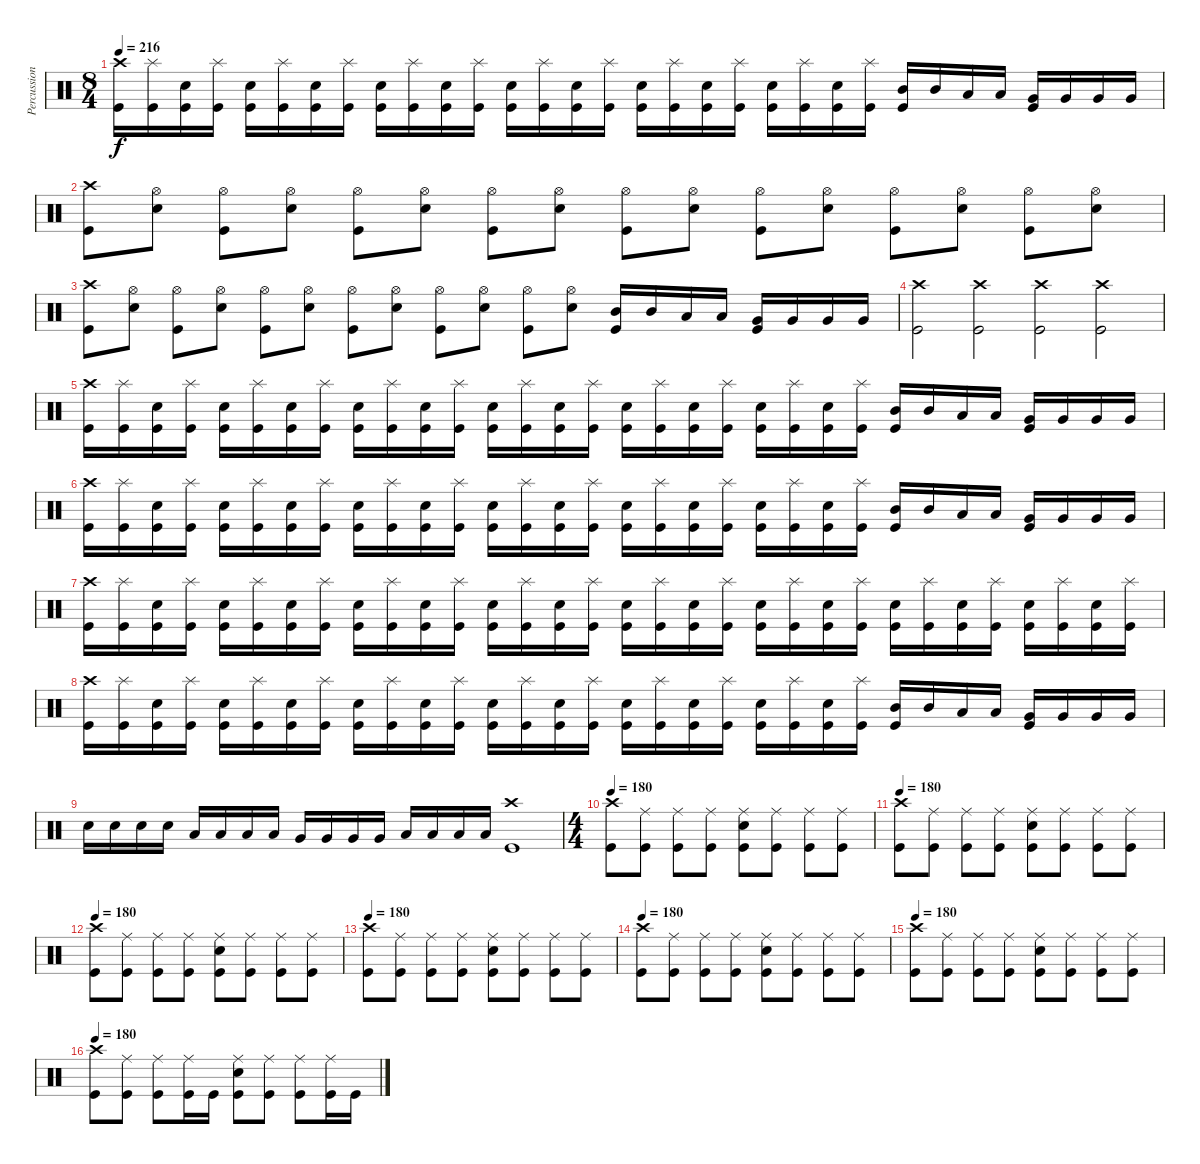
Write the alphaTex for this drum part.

\track ("Percussion" "Percussion") {instrument percussion}
\staff {score}
\articulation defaults
\ts (8 4)
\tempo 216
\clef neutral
\ks c
("Crash high (hit)" "Kick (hit)").16{dy f} ("Splash (hit)" "Kick (hit)").16 ("Electric Snare (hit)" "Kick (hit)").16 ("Splash (hit)" "Kick (hit)").16 ("Electric Snare (hit)" "Kick (hit)").16 ("Splash (hit)" "Kick (hit)").16 ("Electric Snare (hit)" "Kick (hit)").16 ("Splash (hit)" "Kick (hit)").16 ("Electric Snare (hit)" "Kick (hit)").16 ("Splash (hit)" "Kick (hit)").16 ("Electric Snare (hit)" "Kick (hit)").16 ("Splash (hit)" "Kick (hit)").16 ("Electric Snare (hit)" "Kick (hit)").16 ("Splash (hit)" "Kick (hit)").16 ("Electric Snare (hit)" "Kick (hit)").16 ("Splash (hit)" "Kick (hit)").16 ("Electric Snare (hit)" "Kick (hit)").16 ("Splash (hit)" "Kick (hit)").16 ("Electric Snare (hit)" "Kick (hit)").16 ("Splash (hit)" "Kick (hit)").16 ("Electric Snare (hit)" "Kick (hit)").16 ("Splash (hit)" "Kick (hit)").16 ("Electric Snare (hit)" "Kick (hit)").16 ("Splash (hit)" "Kick (hit)").16 ("Mid Tom (hit)" "Kick (hit)").16 "Mid Tom (hit)".16 "Low Tom (hit)".16 "Low Tom (hit)".16 ("Very Low Tom (hit)" "Kick (hit)").16 "Very Low Tom (hit)".16 "Very Low Tom (hit)".16 "Very Low Tom (hit)".16 |
("Crash high (hit)" "Kick (hit)").8 ("Hi-Hat (open)" "Electric Snare (hit)").8 ("Hi-Hat (open)" "Kick (hit)").8 ("Hi-Hat (open)" "Electric Snare (hit)").8 ("Hi-Hat (open)" "Kick (hit)").8 ("Hi-Hat (open)" "Electric Snare (hit)").8 ("Hi-Hat (open)" "Kick (hit)").8 ("Hi-Hat (open)" "Electric Snare (hit)").8 ("Hi-Hat (open)" "Kick (hit)").8 ("Hi-Hat (open)" "Electric Snare (hit)").8 ("Hi-Hat (open)" "Kick (hit)").8 ("Hi-Hat (open)" "Electric Snare (hit)").8 ("Hi-Hat (open)" "Kick (hit)").8 ("Hi-Hat (open)" "Electric Snare (hit)").8 ("Hi-Hat (open)" "Kick (hit)").8 ("Hi-Hat (open)" "Electric Snare (hit)").8 |
("Crash high (hit)" "Kick (hit)").8 ("Hi-Hat (open)" "Electric Snare (hit)").8 ("Hi-Hat (open)" "Kick (hit)").8 ("Hi-Hat (open)" "Electric Snare (hit)").8 ("Hi-Hat (open)" "Kick (hit)").8 ("Hi-Hat (open)" "Electric Snare (hit)").8 ("Hi-Hat (open)" "Kick (hit)").8 ("Hi-Hat (open)" "Electric Snare (hit)").8 ("Hi-Hat (open)" "Kick (hit)").8 ("Hi-Hat (open)" "Electric Snare (hit)").8 ("Hi-Hat (open)" "Kick (hit)").8 ("Hi-Hat (open)" "Electric Snare (hit)").8 ("Mid Tom (hit)" "Kick (hit)").16 "Mid Tom (hit)".16 "Low Tom (hit)".16 "Low Tom (hit)".16 ("Very Low Tom (hit)" "Kick (hit)").16 "Very Low Tom (hit)".16 "Very Low Tom (hit)".16 "Very Low Tom (hit)".16 |
("Crash high (hit)" "Kick (hit)").2 ("Crash high (hit)" "Kick (hit)").2 ("Crash high (hit)" "Kick (hit)").2 ("Crash high (hit)" "Kick (hit)").2 |
("Crash high (hit)" "Kick (hit)").16 ("Splash (hit)" "Kick (hit)").16 ("Electric Snare (hit)" "Kick (hit)").16 ("Splash (hit)" "Kick (hit)").16 ("Electric Snare (hit)" "Kick (hit)").16 ("Splash (hit)" "Kick (hit)").16 ("Electric Snare (hit)" "Kick (hit)").16 ("Splash (hit)" "Kick (hit)").16 ("Electric Snare (hit)" "Kick (hit)").16 ("Splash (hit)" "Kick (hit)").16 ("Electric Snare (hit)" "Kick (hit)").16 ("Splash (hit)" "Kick (hit)").16 ("Electric Snare (hit)" "Kick (hit)").16 ("Splash (hit)" "Kick (hit)").16 ("Electric Snare (hit)" "Kick (hit)").16 ("Splash (hit)" "Kick (hit)").16 ("Electric Snare (hit)" "Kick (hit)").16 ("Splash (hit)" "Kick (hit)").16 ("Electric Snare (hit)" "Kick (hit)").16 ("Splash (hit)" "Kick (hit)").16 ("Electric Snare (hit)" "Kick (hit)").16 ("Splash (hit)" "Kick (hit)").16 ("Electric Snare (hit)" "Kick (hit)").16 ("Splash (hit)" "Kick (hit)").16 ("Mid Tom (hit)" "Kick (hit)").16 "Mid Tom (hit)".16 "Low Tom (hit)".16 "Low Tom (hit)".16 ("Very Low Tom (hit)" "Kick (hit)").16 "Very Low Tom (hit)".16 "Very Low Tom (hit)".16 "Very Low Tom (hit)".16 |
("Crash high (hit)" "Kick (hit)").16 ("Splash (hit)" "Kick (hit)").16 ("Electric Snare (hit)" "Kick (hit)").16 ("Splash (hit)" "Kick (hit)").16 ("Electric Snare (hit)" "Kick (hit)").16 ("Splash (hit)" "Kick (hit)").16 ("Electric Snare (hit)" "Kick (hit)").16 ("Splash (hit)" "Kick (hit)").16 ("Electric Snare (hit)" "Kick (hit)").16 ("Splash (hit)" "Kick (hit)").16 ("Electric Snare (hit)" "Kick (hit)").16 ("Splash (hit)" "Kick (hit)").16 ("Electric Snare (hit)" "Kick (hit)").16 ("Splash (hit)" "Kick (hit)").16 ("Electric Snare (hit)" "Kick (hit)").16 ("Splash (hit)" "Kick (hit)").16 ("Electric Snare (hit)" "Kick (hit)").16 ("Splash (hit)" "Kick (hit)").16 ("Electric Snare (hit)" "Kick (hit)").16 ("Splash (hit)" "Kick (hit)").16 ("Electric Snare (hit)" "Kick (hit)").16 ("Splash (hit)" "Kick (hit)").16 ("Electric Snare (hit)" "Kick (hit)").16 ("Splash (hit)" "Kick (hit)").16 ("Mid Tom (hit)" "Kick (hit)").16 "Mid Tom (hit)".16 "Low Tom (hit)".16 "Low Tom (hit)".16 ("Very Low Tom (hit)" "Kick (hit)").16 "Very Low Tom (hit)".16 "Very Low Tom (hit)".16 "Very Low Tom (hit)".16 |
("Crash high (hit)" "Kick (hit)").16 ("Splash (hit)" "Kick (hit)").16 ("Electric Snare (hit)" "Kick (hit)").16 ("Splash (hit)" "Kick (hit)").16 ("Electric Snare (hit)" "Kick (hit)").16 ("Splash (hit)" "Kick (hit)").16 ("Electric Snare (hit)" "Kick (hit)").16 ("Splash (hit)" "Kick (hit)").16 ("Electric Snare (hit)" "Kick (hit)").16 ("Splash (hit)" "Kick (hit)").16 ("Electric Snare (hit)" "Kick (hit)").16 ("Splash (hit)" "Kick (hit)").16 ("Electric Snare (hit)" "Kick (hit)").16 ("Splash (hit)" "Kick (hit)").16 ("Electric Snare (hit)" "Kick (hit)").16 ("Splash (hit)" "Kick (hit)").16 ("Electric Snare (hit)" "Kick (hit)").16 ("Splash (hit)" "Kick (hit)").16 ("Electric Snare (hit)" "Kick (hit)").16 ("Splash (hit)" "Kick (hit)").16 ("Electric Snare (hit)" "Kick (hit)").16 ("Splash (hit)" "Kick (hit)").16 ("Electric Snare (hit)" "Kick (hit)").16 ("Splash (hit)" "Kick (hit)").16 ("Electric Snare (hit)" "Kick (hit)").16 ("Splash (hit)" "Kick (hit)").16 ("Electric Snare (hit)" "Kick (hit)").16 ("Splash (hit)" "Kick (hit)").16 ("Electric Snare (hit)" "Kick (hit)").16 ("Splash (hit)" "Kick (hit)").16 ("Electric Snare (hit)" "Kick (hit)").16 ("Splash (hit)" "Kick (hit)").16 |
("Crash high (hit)" "Kick (hit)").16 ("Splash (hit)" "Kick (hit)").16 ("Electric Snare (hit)" "Kick (hit)").16 ("Splash (hit)" "Kick (hit)").16 ("Electric Snare (hit)" "Kick (hit)").16 ("Splash (hit)" "Kick (hit)").16 ("Electric Snare (hit)" "Kick (hit)").16 ("Splash (hit)" "Kick (hit)").16 ("Electric Snare (hit)" "Kick (hit)").16 ("Splash (hit)" "Kick (hit)").16 ("Electric Snare (hit)" "Kick (hit)").16 ("Splash (hit)" "Kick (hit)").16 ("Electric Snare (hit)" "Kick (hit)").16 ("Splash (hit)" "Kick (hit)").16 ("Electric Snare (hit)" "Kick (hit)").16 ("Splash (hit)" "Kick (hit)").16 ("Electric Snare (hit)" "Kick (hit)").16 ("Splash (hit)" "Kick (hit)").16 ("Electric Snare (hit)" "Kick (hit)").16 ("Splash (hit)" "Kick (hit)").16 ("Electric Snare (hit)" "Kick (hit)").16 ("Splash (hit)" "Kick (hit)").16 ("Electric Snare (hit)" "Kick (hit)").16 ("Splash (hit)" "Kick (hit)").16 ("Mid Tom (hit)" "Kick (hit)").16 "Mid Tom (hit)".16 "Low Tom (hit)".16 "Low Tom (hit)".16 ("Very Low Tom (hit)" "Kick (hit)").16 "Very Low Tom (hit)".16 "Very Low Tom (hit)".16 "Very Low Tom (hit)".16 |
"Electric Snare (hit)".16 "Electric Snare (hit)".16 "Electric Snare (hit)".16 "Electric Snare (hit)".16 "Low Tom (hit)".16 "Low Tom (hit)".16 "Low Tom (hit)".16 "Low Tom (hit)".16 "Very Low Tom (hit)".16 "Very Low Tom (hit)".16 "Very Low Tom (hit)".16 "Very Low Tom (hit)".16 "Low Floor Tom (hit)".16 "Low Floor Tom (hit)".16 "Low Floor Tom (hit)".16 "Low Floor Tom (hit)".16 ("Crash high (hit)" "Kick (hit)").1 |
\ts (4 4)
\tempo 180
("Crash high (hit)" "Kick (hit)").8 ("Ride (middle)" "Kick (hit)").8 ("Ride (middle)" "Kick (hit)").8 ("Ride (middle)" "Kick (hit)").8 ("Ride (middle)" "Electric Snare (hit)" "Kick (hit)").8 ("Ride (middle)" "Kick (hit)").8 ("Ride (middle)" "Kick (hit)").8 ("Ride (middle)" "Kick (hit)").8 |
\tempo 180
("Crash high (hit)" "Kick (hit)").8 ("Ride (middle)" "Kick (hit)").8 ("Ride (middle)" "Kick (hit)").8 ("Ride (middle)" "Kick (hit)").8 ("Ride (middle)" "Electric Snare (hit)" "Kick (hit)").8 ("Ride (middle)" "Kick (hit)").8 ("Ride (middle)" "Kick (hit)").8 ("Ride (middle)" "Kick (hit)").8 |
\tempo 180
("Crash high (hit)" "Kick (hit)").8 ("Ride (middle)" "Kick (hit)").8 ("Ride (middle)" "Kick (hit)").8 ("Ride (middle)" "Kick (hit)").8 ("Ride (middle)" "Electric Snare (hit)" "Kick (hit)").8 ("Ride (middle)" "Kick (hit)").8 ("Ride (middle)" "Kick (hit)").8 ("Ride (middle)" "Kick (hit)").8 |
\tempo 180
("Crash high (hit)" "Kick (hit)").8 ("Ride (middle)" "Kick (hit)").8 ("Ride (middle)" "Kick (hit)").8 ("Ride (middle)" "Kick (hit)").8 ("Ride (middle)" "Electric Snare (hit)" "Kick (hit)").8 ("Ride (middle)" "Kick (hit)").8 ("Ride (middle)" "Kick (hit)").8 ("Ride (middle)" "Kick (hit)").8 |
\tempo 180
("Crash high (hit)" "Kick (hit)").8 ("Ride (middle)" "Kick (hit)").8 ("Ride (middle)" "Kick (hit)").8 ("Ride (middle)" "Kick (hit)").8 ("Ride (middle)" "Electric Snare (hit)" "Kick (hit)").8 ("Ride (middle)" "Kick (hit)").8 ("Ride (middle)" "Kick (hit)").8 ("Ride (middle)" "Kick (hit)").8 |
\tempo 180
("Crash high (hit)" "Kick (hit)").8 ("Ride (middle)" "Kick (hit)").8 ("Ride (middle)" "Kick (hit)").8 ("Ride (middle)" "Kick (hit)").8 ("Ride (middle)" "Electric Snare (hit)" "Kick (hit)").8 ("Ride (middle)" "Kick (hit)").8 ("Ride (middle)" "Kick (hit)").8 ("Ride (middle)" "Kick (hit)").8 |
\tempo 180
("Crash high (hit)" "Kick (hit)").8 ("Ride (middle)" "Kick (hit)").8 ("Ride (middle)" "Kick (hit)").8 ("Ride (middle)" "Kick (hit)").16 "Kick (hit)".16 ("Ride (middle)" "Electric Snare (hit)" "Kick (hit)").8 ("Ride (middle)" "Kick (hit)").8 ("Ride (middle)" "Kick (hit)").8 ("Ride (middle)" "Kick (hit)").16 "Kick (hit)".16
